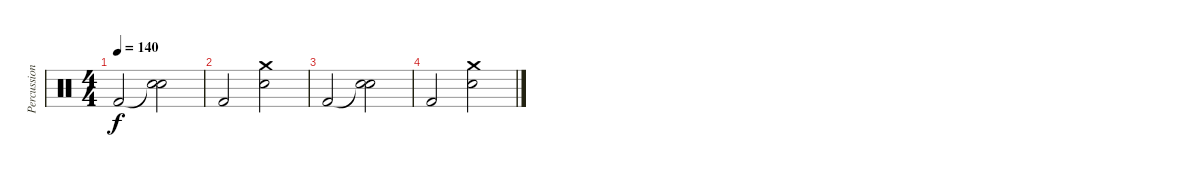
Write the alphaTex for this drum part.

\track ("Percussion" "Percussion") {instrument percussion}
\staff {score}
\articulation defaults
\ts (4 4)
\tempo 140
\clef neutral
\ks c "Kick (hit) 2".2{dy f}
("Snare (hit)"{t} "Snare (hit) 2").2 |
"Kick (hit) 2".2 ("Crash medium (hit)" "Snare (hit) 2").2 |
"Kick (hit) 2".2 ("Snare (hit)"{t} "Snare (hit) 2").2 |
"Kick (hit) 2".2 ("Crash medium (hit)" "Snare (hit) 2").2
